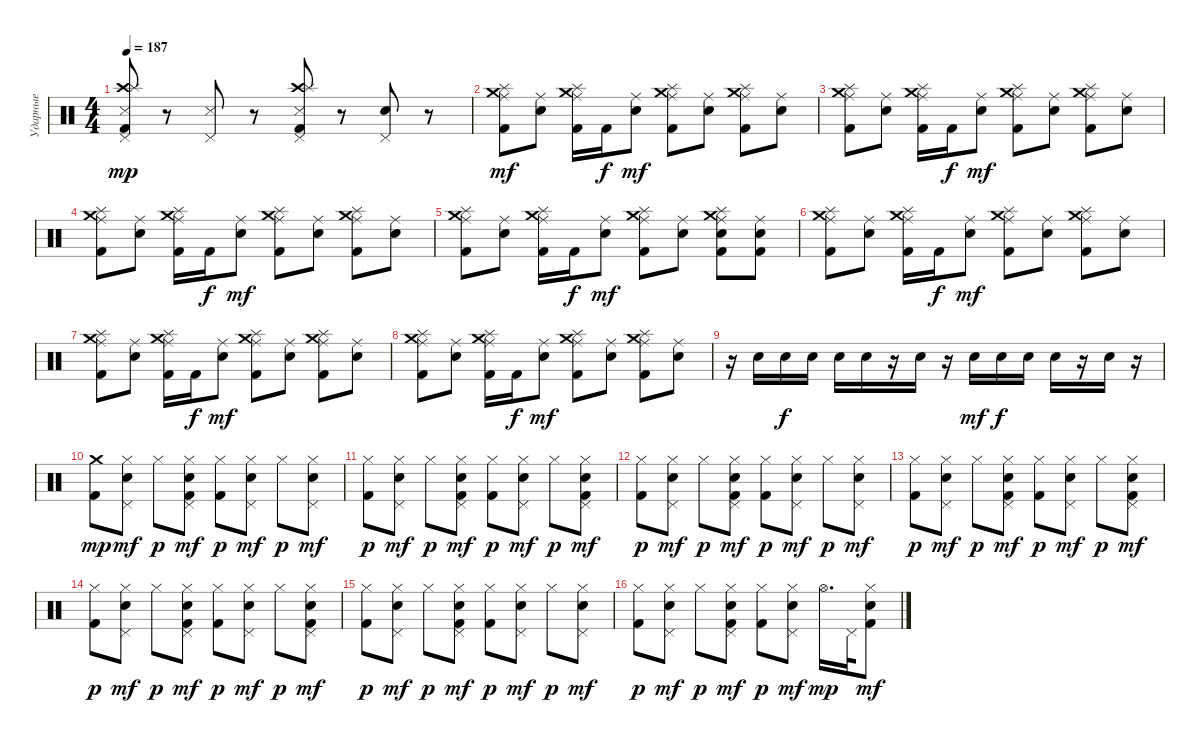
\track ("Ударные" "Ударные") {instrument percussion}
\staff {score}
\articulation defaults
\ts (4 4)
\tempo 187
\clef neutral
\ks c
("Snare (side stick) 3" "Crash high (hit)" "Splash (hit)" "Pedal Hi-Hat (hit)" "Kick (hit) 2").8{dy mp} r.8 ("Snare (side stick) 3" "Pedal Hi-Hat (hit)").8 r.8 ("Snare (side stick) 3" "Crash high (hit)" "Splash (hit)" "Pedal Hi-Hat (hit)" "Kick (hit) 2").8 r.8 ("Electric Snare (hit)" "Pedal Hi-Hat (hit)").8 r.8 |
("Ride (middle)" "Crash medium (hit)" "Splash (hit)" "Kick (hit) 2").8{dy mf} ("Ride (middle)" "Electric Snare (hit)").8 ("Ride (middle)" "Crash medium (hit)" "Splash (hit)" "Kick (hit) 2").16 "Kick (hit) 2".16{dy f} ("Ride (middle)" "Electric Snare (hit)").8{dy mf} ("Ride (middle)" "Crash medium (hit)" "Splash (hit)" "Kick (hit) 2").8 ("Ride (middle)" "Electric Snare (hit)").8 ("Ride (middle)" "Crash medium (hit)" "Splash (hit)" "Kick (hit) 2").8 ("Ride (middle)" "Electric Snare (hit)").8 |
("Ride (middle)" "Crash medium (hit)" "Splash (hit)" "Kick (hit) 2").8 ("Ride (middle)" "Electric Snare (hit)").8 ("Ride (middle)" "Crash medium (hit)" "Splash (hit)" "Kick (hit) 2").16 "Kick (hit) 2".16{dy f} ("Ride (middle)" "Electric Snare (hit)").8{dy mf} ("Ride (middle)" "Crash medium (hit)" "Splash (hit)" "Kick (hit) 2").8 ("Ride (middle)" "Electric Snare (hit)").8 ("Ride (middle)" "Crash medium (hit)" "Splash (hit)" "Kick (hit) 2").8 ("Ride (middle)" "Electric Snare (hit)").8 |
("Ride (middle)" "Crash medium (hit)" "Splash (hit)" "Kick (hit) 2").8 ("Ride (middle)" "Electric Snare (hit)").8 ("Ride (middle)" "Crash medium (hit)" "Splash (hit)" "Kick (hit) 2").16 "Kick (hit) 2".16{dy f} ("Ride (middle)" "Electric Snare (hit)").8{dy mf} ("Ride (middle)" "Crash medium (hit)" "Splash (hit)" "Kick (hit) 2").8 ("Ride (middle)" "Electric Snare (hit)").8 ("Ride (middle)" "Crash medium (hit)" "Splash (hit)" "Kick (hit) 2").8 ("Ride (middle)" "Electric Snare (hit)").8 |
("Ride (middle)" "Crash medium (hit)" "Splash (hit)" "Kick (hit) 2").8 ("Ride (middle)" "Electric Snare (hit)").8 ("Ride (middle)" "Crash medium (hit)" "Splash (hit)" "Kick (hit) 2").16 "Kick (hit) 2".16{dy f} ("Ride (middle)" "Electric Snare (hit)").8{dy mf} ("Ride (middle)" "Crash medium (hit)" "Splash (hit)" "Kick (hit) 2").8 ("Ride (middle)" "Electric Snare (hit)").8 ("Kick (hit) 2" "Ride (middle)" "Crash medium (hit)" "Splash (hit)" "Electric Snare (hit)").8 ("Kick (hit) 2" "Ride (middle)" "Electric Snare (hit)").8 |
("Ride (middle)" "Crash medium (hit)" "Splash (hit)" "Kick (hit) 2").8 ("Ride (middle)" "Electric Snare (hit)").8 ("Ride (middle)" "Crash medium (hit)" "Splash (hit)" "Kick (hit) 2").16 "Kick (hit) 2".16{dy f} ("Ride (middle)" "Electric Snare (hit)").8{dy mf} ("Ride (middle)" "Crash medium (hit)" "Splash (hit)" "Kick (hit) 2").8 ("Ride (middle)" "Electric Snare (hit)").8 ("Ride (middle)" "Crash medium (hit)" "Splash (hit)" "Kick (hit) 2").8 ("Ride (middle)" "Electric Snare (hit)").8 |
("Ride (middle)" "Crash medium (hit)" "Splash (hit)" "Kick (hit) 2").8 ("Ride (middle)" "Electric Snare (hit)").8 ("Ride (middle)" "Crash medium (hit)" "Splash (hit)" "Kick (hit) 2").16 "Kick (hit) 2".16{dy f} ("Ride (middle)" "Electric Snare (hit)").8{dy mf} ("Ride (middle)" "Crash medium (hit)" "Splash (hit)" "Kick (hit) 2").8 ("Ride (middle)" "Electric Snare (hit)").8 ("Ride (middle)" "Crash medium (hit)" "Splash (hit)" "Kick (hit) 2").8 ("Ride (middle)" "Electric Snare (hit)").8 |
("Ride (middle)" "Crash medium (hit)" "Splash (hit)" "Kick (hit) 2").8 ("Ride (middle)" "Electric Snare (hit)").8 ("Ride (middle)" "Crash medium (hit)" "Splash (hit)" "Kick (hit) 2").16 "Kick (hit) 2".16{dy f} ("Ride (middle)" "Electric Snare (hit)").8{dy mf} ("Ride (middle)" "Crash medium (hit)" "Splash (hit)" "Kick (hit) 2").8 ("Ride (middle)" "Electric Snare (hit)").8 ("Ride (middle)" "Crash medium (hit)" "Splash (hit)" "Kick (hit) 2").8 ("Ride (middle)" "Electric Snare (hit)").8 |
r.16 "Electric Snare (hit)".16 "Electric Snare (hit)".16{dy f} "Electric Snare (hit)".16 "Electric Snare (hit)".16 "Electric Snare (hit)".16 r.16 "Electric Snare (hit)".16 r.16 "Electric Snare (hit)".16{dy mf} "Electric Snare (hit)".16{dy f} "Electric Snare (hit)".16 "Electric Snare (hit)".16 r.16 "Electric Snare (hit)".16 r.16 |
("Crash medium (hit)" "Kick (hit) 2").8{dy mp} ("Pedal Hi-Hat (hit)" "Hi-Hat (closed)" "Electric Snare (hit)").8{dy mf} "Hi-Hat (closed)".8{dy p} ("Pedal Hi-Hat (hit)" "Hi-Hat (closed)" "Electric Snare (hit)" "Kick (hit) 2").8{dy mf} ("Hi-Hat (closed)" "Kick (hit) 2").8{dy p} ("Pedal Hi-Hat (hit)" "Hi-Hat (closed)" "Electric Snare (hit)").8{dy mf} "Hi-Hat (closed)".8{dy p} ("Pedal Hi-Hat (hit)" "Hi-Hat (closed)" "Electric Snare (hit)").8{dy mf} |
("Hi-Hat (closed)" "Kick (hit) 2").8{dy p} ("Pedal Hi-Hat (hit)" "Hi-Hat (closed)" "Electric Snare (hit)").8{dy mf} "Hi-Hat (closed)".8{dy p} ("Pedal Hi-Hat (hit)" "Hi-Hat (closed)" "Electric Snare (hit)" "Kick (hit) 2").8{dy mf} ("Hi-Hat (closed)" "Kick (hit) 2").8{dy p} ("Pedal Hi-Hat (hit)" "Hi-Hat (closed)" "Electric Snare (hit)").8{dy mf} "Hi-Hat (closed)".8{dy p} ("Pedal Hi-Hat (hit)" "Hi-Hat (closed)" "Kick (hit) 2" "Electric Snare (hit)").8{dy mf} |
("Hi-Hat (closed)" "Kick (hit) 2").8{dy p} ("Pedal Hi-Hat (hit)" "Hi-Hat (closed)" "Electric Snare (hit)").8{dy mf} "Hi-Hat (closed)".8{dy p} ("Pedal Hi-Hat (hit)" "Hi-Hat (closed)" "Electric Snare (hit)" "Kick (hit) 2").8{dy mf} ("Hi-Hat (closed)" "Kick (hit) 2").8{dy p} ("Pedal Hi-Hat (hit)" "Hi-Hat (closed)" "Electric Snare (hit)").8{dy mf} "Hi-Hat (closed)".8{dy p} ("Pedal Hi-Hat (hit)" "Hi-Hat (closed)" "Electric Snare (hit)").8{dy mf} |
("Hi-Hat (closed)" "Kick (hit) 2").8{dy p} ("Pedal Hi-Hat (hit)" "Hi-Hat (closed)" "Electric Snare (hit)").8{dy mf} "Hi-Hat (closed)".8{dy p} ("Pedal Hi-Hat (hit)" "Hi-Hat (closed)" "Electric Snare (hit)" "Kick (hit) 2").8{dy mf} ("Hi-Hat (closed)" "Kick (hit) 2").8{dy p} ("Pedal Hi-Hat (hit)" "Hi-Hat (closed)" "Electric Snare (hit)").8{dy mf} "Hi-Hat (closed)".8{dy p} ("Pedal Hi-Hat (hit)" "Hi-Hat (closed)" "Kick (hit) 2" "Electric Snare (hit)").8{dy mf} |
("Hi-Hat (closed)" "Kick (hit) 2").8{dy p} ("Pedal Hi-Hat (hit)" "Hi-Hat (closed)" "Electric Snare (hit)").8{dy mf} "Hi-Hat (closed)".8{dy p} ("Pedal Hi-Hat (hit)" "Hi-Hat (closed)" "Electric Snare (hit)" "Kick (hit) 2").8{dy mf} ("Hi-Hat (closed)" "Kick (hit) 2").8{dy p} ("Pedal Hi-Hat (hit)" "Hi-Hat (closed)" "Electric Snare (hit)").8{dy mf} "Hi-Hat (closed)".8{dy p} ("Pedal Hi-Hat (hit)" "Hi-Hat (closed)" "Kick (hit) 2" "Electric Snare (hit)").8{dy mf} |
("Hi-Hat (closed)" "Kick (hit) 2").8{dy p} ("Pedal Hi-Hat (hit)" "Hi-Hat (closed)" "Electric Snare (hit)").8{dy mf} "Hi-Hat (closed)".8{dy p} ("Pedal Hi-Hat (hit)" "Hi-Hat (closed)" "Electric Snare (hit)" "Kick (hit) 2").8{dy mf} ("Hi-Hat (closed)" "Kick (hit) 2").8{dy p} ("Pedal Hi-Hat (hit)" "Hi-Hat (closed)" "Electric Snare (hit)").8{dy mf} "Hi-Hat (closed)".8{dy p} ("Pedal Hi-Hat (hit)" "Hi-Hat (closed)" "Electric Snare (hit)").8{dy mf} |
("Hi-Hat (closed)" "Kick (hit) 2").8{dy p} ("Pedal Hi-Hat (hit)" "Hi-Hat (closed)" "Electric Snare (hit)").8{dy mf} "Hi-Hat (closed)".8{dy p} ("Pedal Hi-Hat (hit)" "Hi-Hat (closed)" "Electric Snare (hit)" "Kick (hit) 2").8{dy mf} ("Hi-Hat (closed)" "Kick (hit) 2").8{dy p} ("Pedal Hi-Hat (hit)" "Hi-Hat (closed)" "Electric Snare (hit)").8{dy mf} "Hi-Hat (open)".16{d dy mp} "Pedal Hi-Hat (hit)".32 ("Hi-Hat (closed)" "Kick (hit) 2" "Electric Snare (hit)").8{dy mf}
